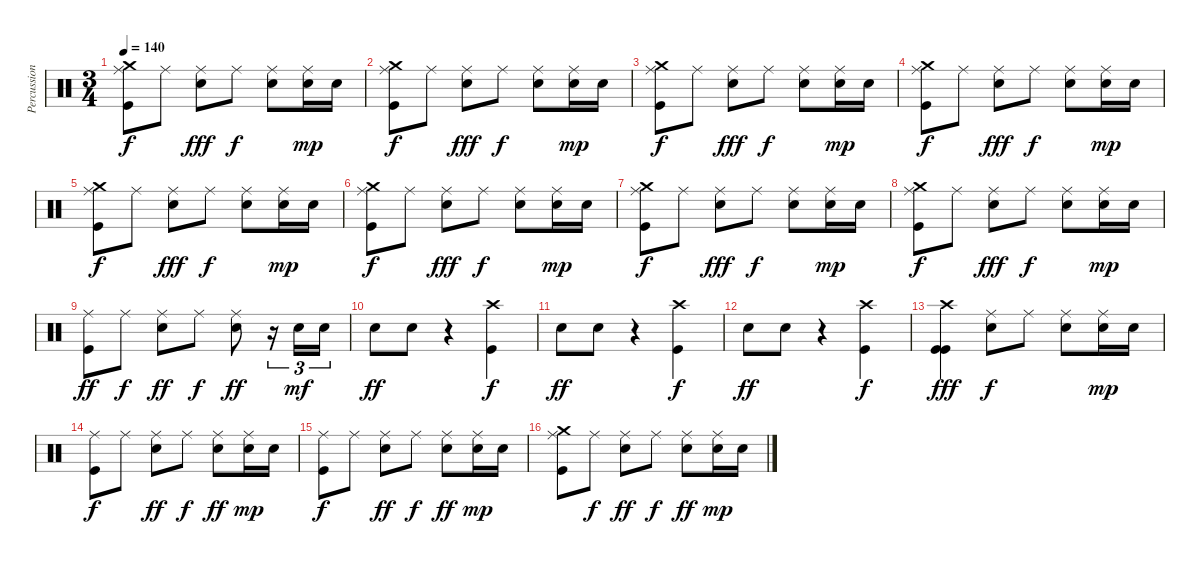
\track ("Percussion" "Percussion") {instrument percussion}
\staff {score}
\articulation defaults
\ts (3 4)
\tempo 140
\clef neutral
\ks c
("Crash medium (hit)" "Ride (middle)" "Kick (hit)").8{dy f} "Ride (middle)".8 ("Ride (middle)" "Electric Snare (hit)").8{dy fff} "Ride (middle)".8{dy f} ("Ride (middle)" "Electric Snare (hit)").8 ("Ride (middle)" "Electric Snare (hit)").16{dy mp} "Electric Snare (hit)".16 |
("Crash medium (hit)" "Ride (middle)" "Kick (hit)").8{dy f} "Ride (middle)".8 ("Ride (middle)" "Electric Snare (hit)").8{dy fff} "Ride (middle)".8{dy f} ("Ride (middle)" "Electric Snare (hit)").8 ("Ride (middle)" "Electric Snare (hit)").16{dy mp} "Electric Snare (hit)".16 |
("Crash medium (hit)" "Ride (middle)" "Kick (hit)").8{dy f} "Ride (middle)".8 ("Ride (middle)" "Electric Snare (hit)").8{dy fff} "Ride (middle)".8{dy f} ("Ride (middle)" "Electric Snare (hit)").8 ("Ride (middle)" "Electric Snare (hit)").16{dy mp} "Electric Snare (hit)".16 |
("Crash medium (hit)" "Ride (middle)" "Kick (hit)").8{dy f} "Ride (middle)".8 ("Ride (middle)" "Electric Snare (hit)").8{dy fff} "Ride (middle)".8{dy f} ("Ride (middle)" "Electric Snare (hit)").8 ("Ride (middle)" "Electric Snare (hit)").16{dy mp} "Electric Snare (hit)".16 |
("Crash medium (hit)" "Ride (middle)" "Kick (hit)").8{dy f} "Ride (middle)".8 ("Ride (middle)" "Electric Snare (hit)").8{dy fff} "Ride (middle)".8{dy f} ("Ride (middle)" "Electric Snare (hit)").8 ("Ride (middle)" "Electric Snare (hit)").16{dy mp} "Electric Snare (hit)".16 |
("Crash medium (hit)" "Ride (middle)" "Kick (hit)").8{dy f} "Ride (middle)".8 ("Ride (middle)" "Electric Snare (hit)").8{dy fff} "Ride (middle)".8{dy f} ("Ride (middle)" "Electric Snare (hit)").8 ("Ride (middle)" "Electric Snare (hit)").16{dy mp} "Electric Snare (hit)".16 |
("Crash medium (hit)" "Ride (middle)" "Kick (hit)").8{dy f} "Ride (middle)".8 ("Ride (middle)" "Electric Snare (hit)").8{dy fff} "Ride (middle)".8{dy f} ("Ride (middle)" "Electric Snare (hit)").8 ("Ride (middle)" "Electric Snare (hit)").16{dy mp} "Electric Snare (hit)".16 |
("Crash medium (hit)" "Ride (middle)" "Kick (hit)").8{dy f} "Ride (middle)".8 ("Ride (middle)" "Electric Snare (hit)").8{dy fff} "Ride (middle)".8{dy f} ("Ride (middle)" "Electric Snare (hit)").8 ("Ride (middle)" "Electric Snare (hit)").16{dy mp} "Electric Snare (hit)".16 |
("Ride (middle)" "Kick (hit)").8{dy ff} "Ride (middle)".8{dy f} ("Ride (middle)" "Electric Snare (hit)").8{dy ff} "Ride (middle)".8{dy f} ("Ride (middle)" "Electric Snare (hit)").8{dy ff} r.16{tu (3 2)} "Electric Snare (hit)".16{tu (3 2) dy mf} "Electric Snare (hit)".16{tu (3 2)} |
"Electric Snare (hit)".8{dy ff} "Electric Snare (hit)".8 r.4 ("Crash high (hit)" "Kick (hit)").4{dy f} |
"Electric Snare (hit)".8{dy ff} "Electric Snare (hit)".8 r.4 ("Crash high (hit)" "Kick (hit)").4{dy f} |
"Electric Snare (hit)".8{dy ff} "Electric Snare (hit)".8 r.4 ("Crash high (hit)" "Kick (hit)").4{dy f} |
("Crash high (hit)" "Kick (hit)" "Kick (hit)").4{dy fff} ("Ride (middle)" "Electric Snare (hit)").8{dy f} "Ride (middle)".8 ("Ride (middle)" "Electric Snare (hit)").8 ("Ride (middle)" "Electric Snare (hit)").16{dy mp} "Electric Snare (hit)".16 |
("Ride (middle)" "Kick (hit)").8{dy f} "Ride (middle)".8 ("Ride (middle)" "Electric Snare (hit)").8{dy ff} "Ride (middle)".8{dy f} ("Ride (middle)" "Electric Snare (hit)").8{dy ff} ("Ride (middle)" "Electric Snare (hit)").16{dy mp} "Electric Snare (hit)".16 |
("Ride (middle)" "Kick (hit)").8{dy f} "Ride (middle)".8 ("Ride (middle)" "Electric Snare (hit)").8{dy ff} "Ride (middle)".8{dy f} ("Ride (middle)" "Electric Snare (hit)").8{dy ff} ("Ride (middle)" "Electric Snare (hit)").16{dy mp} "Electric Snare (hit)".16 |
("Crash medium (hit)" "Ride (middle)" "Kick (hit)").8 "Ride (middle)".8{dy f} ("Ride (middle)" "Electric Snare (hit)").8{dy ff} "Ride (middle)".8{dy f} ("Ride (middle)" "Electric Snare (hit)").8{dy ff} ("Ride (middle)" "Electric Snare (hit)").16{dy mp} "Electric Snare (hit)".16
